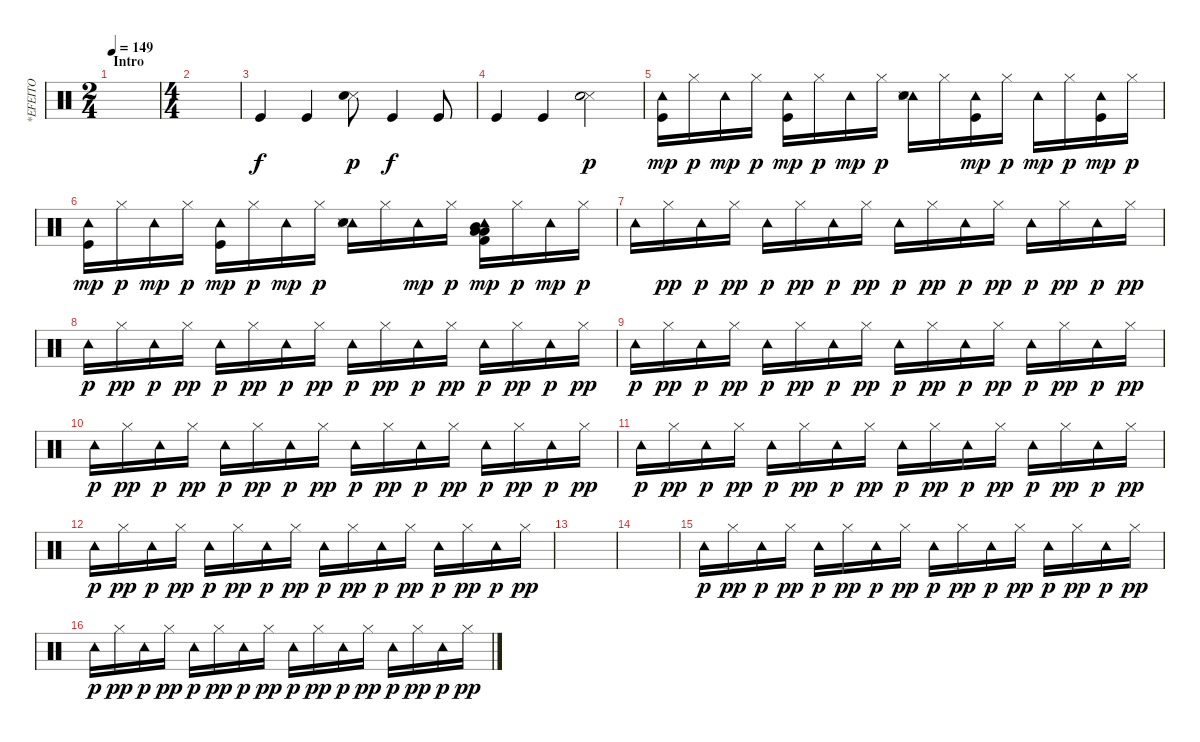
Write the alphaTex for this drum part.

\track ("*EFEITO" "*EFEITO") {instrument percussion}
\staff {score}
\articulation defaults
\ts (2 4)
\section ("" "Intro")
\tempo 149
\clef neutral
\ks c
|
\ts (4 4)
|
"Kick (hit)".4 "Kick (hit)".4 ("Snare (side stick) 3" "Electric Snare (hit)").8{dy p} "Kick (hit)".4{dy f} "Kick (hit)".8 |
"Kick (hit)".4 "Kick (hit)".4 ("Snare (side stick) 3" "Electric Snare (hit)").2{dy p} |
("Tambourine (hit)" "Kick (hit)").16{dy mp} "Hi-Hat (closed)".16{dy p} "Tambourine (hit)".16{dy mp} "Hi-Hat (closed)".16{dy p} ("Tambourine (hit)" "Kick (hit)").16{dy mp} "Hi-Hat (closed)".16{dy p} "Tambourine (hit)".16{dy mp} "Hi-Hat (closed)".16{dy p} ("Tambourine (hit)" "Snare (side stick) 3" "Electric Snare (hit)").16 "Hi-Hat (closed)".16 ("Tambourine (hit)" "Kick (hit)").16{dy mp} "Hi-Hat (closed)".16{dy p} "Tambourine (hit)".16{dy mp} "Hi-Hat (closed)".16{dy p} ("Tambourine (hit)" "Kick (hit)").16{dy mp} "Hi-Hat (closed)".16{dy p} |
("Tambourine (hit)" "Kick (hit)").16{dy mp} "Hi-Hat (closed)".16{dy p} "Tambourine (hit)".16{dy mp} "Hi-Hat (closed)".16{dy p} ("Tambourine (hit)" "Kick (hit)").16{dy mp} "Hi-Hat (closed)".16{dy p} "Tambourine (hit)".16{dy mp} "Hi-Hat (closed)".16{dy p} ("Tambourine (hit)" "Snare (side stick) 3" "Electric Snare (hit)").16 "Hi-Hat (closed)".16 "Tambourine (hit)".16{dy mp} "Hi-Hat (closed)".16{dy p} ("Tambourine (hit)" "Low Floor Tom (hit)" "Mid Tom (hit)" "Low Floor Tom (hit)" "Kick (hit) 2").16{dy mp} "Hi-Hat (closed)".16{dy p} "Tambourine (hit)".16{dy mp} "Hi-Hat (closed)".16{dy p} |
"Tambourine (hit)".16 "Hi-Hat (closed)".16{dy pp} "Tambourine (hit)".16{dy p} "Hi-Hat (closed)".16{dy pp} "Tambourine (hit)".16{dy p} "Hi-Hat (closed)".16{dy pp} "Tambourine (hit)".16{dy p} "Hi-Hat (closed)".16{dy pp} "Tambourine (hit)".16{dy p} "Hi-Hat (closed)".16{dy pp} "Tambourine (hit)".16{dy p} "Hi-Hat (closed)".16{dy pp} "Tambourine (hit)".16{dy p} "Hi-Hat (closed)".16{dy pp} "Tambourine (hit)".16{dy p} "Hi-Hat (closed)".16{dy pp} |
"Tambourine (hit)".16{dy p} "Hi-Hat (closed)".16{dy pp} "Tambourine (hit)".16{dy p} "Hi-Hat (closed)".16{dy pp} "Tambourine (hit)".16{dy p} "Hi-Hat (closed)".16{dy pp} "Tambourine (hit)".16{dy p} "Hi-Hat (closed)".16{dy pp} "Tambourine (hit)".16{dy p} "Hi-Hat (closed)".16{dy pp} "Tambourine (hit)".16{dy p} "Hi-Hat (closed)".16{dy pp} "Tambourine (hit)".16{dy p} "Hi-Hat (closed)".16{dy pp} "Tambourine (hit)".16{dy p} "Hi-Hat (closed)".16{dy pp} |
"Tambourine (hit)".16{dy p} "Hi-Hat (closed)".16{dy pp} "Tambourine (hit)".16{dy p} "Hi-Hat (closed)".16{dy pp} "Tambourine (hit)".16{dy p} "Hi-Hat (closed)".16{dy pp} "Tambourine (hit)".16{dy p} "Hi-Hat (closed)".16{dy pp} "Tambourine (hit)".16{dy p} "Hi-Hat (closed)".16{dy pp} "Tambourine (hit)".16{dy p} "Hi-Hat (closed)".16{dy pp} "Tambourine (hit)".16{dy p} "Hi-Hat (closed)".16{dy pp} "Tambourine (hit)".16{dy p} "Hi-Hat (closed)".16{dy pp} |
"Tambourine (hit)".16{dy p} "Hi-Hat (closed)".16{dy pp} "Tambourine (hit)".16{dy p} "Hi-Hat (closed)".16{dy pp} "Tambourine (hit)".16{dy p} "Hi-Hat (closed)".16{dy pp} "Tambourine (hit)".16{dy p} "Hi-Hat (closed)".16{dy pp} "Tambourine (hit)".16{dy p} "Hi-Hat (closed)".16{dy pp} "Tambourine (hit)".16{dy p} "Hi-Hat (closed)".16{dy pp} "Tambourine (hit)".16{dy p} "Hi-Hat (closed)".16{dy pp} "Tambourine (hit)".16{dy p} "Hi-Hat (closed)".16{dy pp} |
"Tambourine (hit)".16{dy p} "Hi-Hat (closed)".16{dy pp} "Tambourine (hit)".16{dy p} "Hi-Hat (closed)".16{dy pp} "Tambourine (hit)".16{dy p} "Hi-Hat (closed)".16{dy pp} "Tambourine (hit)".16{dy p} "Hi-Hat (closed)".16{dy pp} "Tambourine (hit)".16{dy p} "Hi-Hat (closed)".16{dy pp} "Tambourine (hit)".16{dy p} "Hi-Hat (closed)".16{dy pp} "Tambourine (hit)".16{dy p} "Hi-Hat (closed)".16{dy pp} "Tambourine (hit)".16{dy p} "Hi-Hat (closed)".16{dy pp} |
"Tambourine (hit)".16{dy p} "Hi-Hat (closed)".16{dy pp} "Tambourine (hit)".16{dy p} "Hi-Hat (closed)".16{dy pp} "Tambourine (hit)".16{dy p} "Hi-Hat (closed)".16{dy pp} "Tambourine (hit)".16{dy p} "Hi-Hat (closed)".16{dy pp} "Tambourine (hit)".16{dy p} "Hi-Hat (closed)".16{dy pp} "Tambourine (hit)".16{dy p} "Hi-Hat (closed)".16{dy pp} "Tambourine (hit)".16{dy p} "Hi-Hat (closed)".16{dy pp} "Tambourine (hit)".16{dy p} "Hi-Hat (closed)".16{dy pp} |
|
|
"Tambourine (hit)".16{dy p} "Hi-Hat (closed)".16{dy pp} "Tambourine (hit)".16{dy p} "Hi-Hat (closed)".16{dy pp} "Tambourine (hit)".16{dy p} "Hi-Hat (closed)".16{dy pp} "Tambourine (hit)".16{dy p} "Hi-Hat (closed)".16{dy pp} "Tambourine (hit)".16{dy p} "Hi-Hat (closed)".16{dy pp} "Tambourine (hit)".16{dy p} "Hi-Hat (closed)".16{dy pp} "Tambourine (hit)".16{dy p} "Hi-Hat (closed)".16{dy pp} "Tambourine (hit)".16{dy p} "Hi-Hat (closed)".16{dy pp} |
"Tambourine (hit)".16{dy p} "Hi-Hat (closed)".16{dy pp} "Tambourine (hit)".16{dy p} "Hi-Hat (closed)".16{dy pp} "Tambourine (hit)".16{dy p} "Hi-Hat (closed)".16{dy pp} "Tambourine (hit)".16{dy p} "Hi-Hat (closed)".16{dy pp} "Tambourine (hit)".16{dy p} "Hi-Hat (closed)".16{dy pp} "Tambourine (hit)".16{dy p} "Hi-Hat (closed)".16{dy pp} "Tambourine (hit)".16{dy p} "Hi-Hat (closed)".16{dy pp} "Tambourine (hit)".16{dy p} "Hi-Hat (closed)".16{dy pp}
